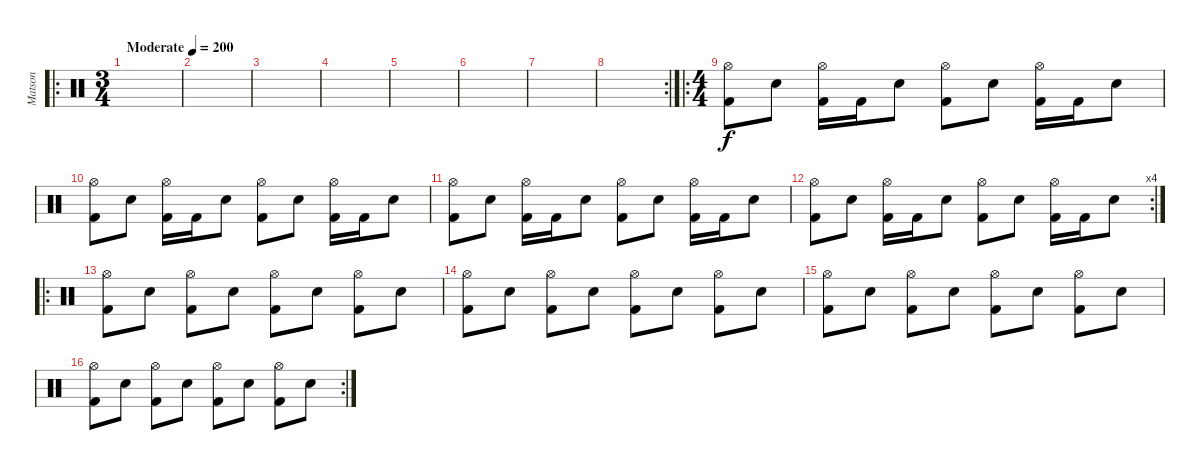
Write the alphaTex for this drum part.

\track ("Matson" "Matson") {instrument percussion}
\staff {score}
\articulation defaults
\ro
\ts (3 4)
\tempo (200 "Moderate")
\clef neutral
\ks c
|
|
|
|
|
|
|
\rc 2
|
\ro
\ts (4 4)
("Hi-Hat (open)" "Kick (hit) 2").8 "Electric Snare (hit)".8 ("Hi-Hat (open)" "Kick (hit) 2").16 "Kick (hit) 2".16 "Electric Snare (hit)".8 ("Hi-Hat (open)" "Kick (hit) 2").8 "Electric Snare (hit)".8 ("Hi-Hat (open)" "Kick (hit) 2").16 "Kick (hit) 2".16 "Electric Snare (hit)".8 |
("Hi-Hat (open)" "Kick (hit) 2").8 "Electric Snare (hit)".8 ("Hi-Hat (open)" "Kick (hit) 2").16 "Kick (hit) 2".16 "Electric Snare (hit)".8 ("Hi-Hat (open)" "Kick (hit) 2").8 "Electric Snare (hit)".8 ("Hi-Hat (open)" "Kick (hit) 2").16 "Kick (hit) 2".16 "Electric Snare (hit)".8 |
("Hi-Hat (open)" "Kick (hit) 2").8 "Electric Snare (hit)".8 ("Hi-Hat (open)" "Kick (hit) 2").16 "Kick (hit) 2".16 "Electric Snare (hit)".8 ("Hi-Hat (open)" "Kick (hit) 2").8 "Electric Snare (hit)".8 ("Hi-Hat (open)" "Kick (hit) 2").16 "Kick (hit) 2".16 "Electric Snare (hit)".8 |
\rc 4
("Hi-Hat (open)" "Kick (hit) 2").8 "Electric Snare (hit)".8 ("Hi-Hat (open)" "Kick (hit) 2").16 "Kick (hit) 2".16 "Electric Snare (hit)".8 ("Hi-Hat (open)" "Kick (hit) 2").8 "Electric Snare (hit)".8 ("Hi-Hat (open)" "Kick (hit) 2").16 "Kick (hit) 2".16 "Electric Snare (hit)".8 |
\ro
("Hi-Hat (open)" "Kick (hit) 2").8 "Electric Snare (hit)".8 ("Hi-Hat (open)" "Kick (hit) 2").8 "Electric Snare (hit)".8 ("Hi-Hat (open)" "Kick (hit) 2").8 "Electric Snare (hit)".8 ("Hi-Hat (open)" "Kick (hit) 2").8 "Electric Snare (hit)".8 |
("Hi-Hat (open)" "Kick (hit) 2").8 "Electric Snare (hit)".8 ("Hi-Hat (open)" "Kick (hit) 2").8 "Electric Snare (hit)".8 ("Hi-Hat (open)" "Kick (hit) 2").8 "Electric Snare (hit)".8 ("Hi-Hat (open)" "Kick (hit) 2").8 "Electric Snare (hit)".8 |
("Hi-Hat (open)" "Kick (hit) 2").8 "Electric Snare (hit)".8 ("Hi-Hat (open)" "Kick (hit) 2").8 "Electric Snare (hit)".8 ("Hi-Hat (open)" "Kick (hit) 2").8 "Electric Snare (hit)".8 ("Hi-Hat (open)" "Kick (hit) 2").8 "Electric Snare (hit)".8 |
\rc 2
("Hi-Hat (open)" "Kick (hit) 2").8 "Electric Snare (hit)".8 ("Hi-Hat (open)" "Kick (hit) 2").8 "Electric Snare (hit)".8 ("Hi-Hat (open)" "Kick (hit) 2").8 "Electric Snare (hit)".8 ("Hi-Hat (open)" "Kick (hit) 2").8 "Electric Snare (hit)".8
